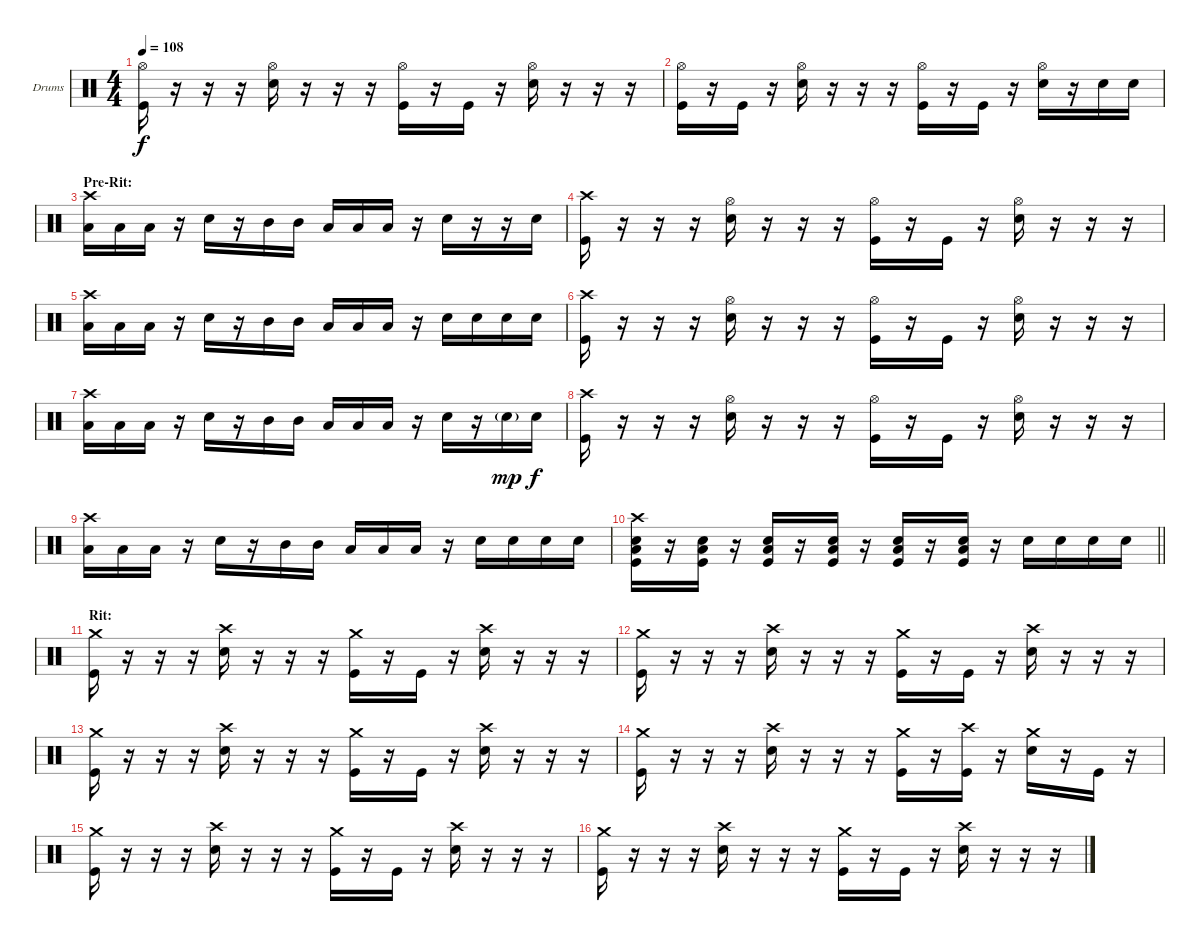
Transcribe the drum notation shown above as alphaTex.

\bracketExtendMode groupsimilarinstruments
\firstSystemTrackNameOrientation horizontal
\otherSystemsTrackNameOrientation horizontal
\track ("Drumkit" "Drums") {instrument percussion}
\staff {score}
\articulation defaults
\ts (4 4)
\tempo 108
\clef neutral
\ks c
("Kick (hit)" "Hi-Hat (open)").16{dy f} r.16 r.16 r.16 ("Snare (hit) 2" "Hi-Hat (open)").16 r.16 r.16 r.16 ("Kick (hit)" "Hi-Hat (open)").16 r.16 "Kick (hit)".16 r.16 ("Snare (hit) 2" "Hi-Hat (open)").16 r.16 r.16 r.16 |
("Kick (hit)" "Hi-Hat (open)").16 r.16 "Kick (hit)".16 r.16 ("Snare (hit) 2" "Hi-Hat (open)").16 r.16 r.16 r.16 ("Kick (hit)" "Hi-Hat (open)").16 r.16 "Kick (hit)".16 r.16 ("Snare (hit) 2" "Hi-Hat (open)").16 r.16 "Snare (hit) 2".16 "Snare (hit) 2".16 |
\section ("" "Pre-Rit:")
("Low Tom (hit)" "Crash high (hit)").16 "Low Tom (hit)".16 "Low Tom (hit)".16 r.16 "Snare (hit) 2".16 r.16 "Mid Tom (hit)".16 "Mid Tom (hit)".16 "Low Tom (hit)".16 "Low Tom (hit)".16 "Low Tom (hit)".16 r.16 "Snare (hit) 2".16 r.16 r.16 "Snare (hit) 2".16 |
("Kick (hit)" "Crash high (hit)").16 r.16 r.16 r.16 ("Snare (hit) 2" "Hi-Hat (open)").16 r.16 r.16 r.16 ("Kick (hit)" "Hi-Hat (open)").16 r.16 "Kick (hit)".16 r.16 ("Snare (hit) 2" "Hi-Hat (open)").16 r.16 r.16 r.16 |
("Low Tom (hit)" "Crash high (hit)").16 "Low Tom (hit)".16 "Low Tom (hit)".16 r.16 "Snare (hit) 2".16 r.16 "Mid Tom (hit)".16 "Mid Tom (hit)".16 "Low Tom (hit)".16 "Low Tom (hit)".16 "Low Tom (hit)".16 r.16 "Snare (hit) 2".16 "Snare (hit) 2".16 "Snare (hit) 2".16 "Snare (hit) 2".16 |
("Kick (hit)" "Crash high (hit)").16 r.16 r.16 r.16 ("Snare (hit) 2" "Hi-Hat (open)").16 r.16 r.16 r.16 ("Kick (hit)" "Hi-Hat (open)").16 r.16 "Kick (hit)".16 r.16 ("Snare (hit) 2" "Hi-Hat (open)").16 r.16 r.16 r.16 |
("Low Tom (hit)" "Crash high (hit)").16 "Low Tom (hit)".16 "Low Tom (hit)".16 r.16 "Snare (hit) 2".16 r.16 "Mid Tom (hit)".16 "Mid Tom (hit)".16 "Low Tom (hit)".16 "Low Tom (hit)".16 "Low Tom (hit)".16 r.16 "Snare (hit) 2".16 r.16 "Snare (hit) 2"{g}.16{dy mp} "Snare (hit) 2".16{dy f} |
("Kick (hit)" "Crash high (hit)").16 r.16 r.16 r.16 ("Snare (hit) 2" "Hi-Hat (open)").16 r.16 r.16 r.16 ("Kick (hit)" "Hi-Hat (open)").16 r.16 "Kick (hit)".16 r.16 ("Snare (hit) 2" "Hi-Hat (open)").16 r.16 r.16 r.16 |
("Low Tom (hit)" "Crash high (hit)").16 "Low Tom (hit)".16 "Low Tom (hit)".16 r.16 "Snare (hit) 2".16 r.16 "Mid Tom (hit)".16 "Mid Tom (hit)".16 "Low Tom (hit)".16 "Low Tom (hit)".16 "Low Tom (hit)".16 r.16 "Snare (hit) 2".16 "Snare (hit) 2".16 "Snare (hit) 2".16 "Snare (hit) 2".16 |
\barLineRight lightlight
("Kick (hit)" "Snare (hit) 2" "Low Tom (hit)" "Crash high (hit)").16 r.16 ("Kick (hit)" "Snare (hit) 2" "Low Tom (hit)").16 r.16 ("Kick (hit)" "Snare (hit) 2" "Low Tom (hit)").16 r.16 ("Kick (hit)" "Snare (hit) 2" "Low Tom (hit)").16 r.16 ("Kick (hit)" "Snare (hit) 2" "Low Tom (hit)").16 r.16 ("Kick (hit)" "Snare (hit) 2" "Low Tom (hit)").16 r.16 "Snare (hit) 2".16 "Snare (hit) 2".16 "Snare (hit) 2".16 "Snare (hit) 2".16 |
\section ("" "Rit:")
("Kick (hit)" "Crash medium (hit)").16 r.16 r.16 r.16 ("Snare (hit) 2" "Crash high (hit)").16 r.16 r.16 r.16 ("Kick (hit)" "Crash medium (hit)").16 r.16 "Kick (hit)".16 r.16 ("Snare (hit) 2" "Crash high (hit)").16 r.16 r.16 r.16 |
("Kick (hit)" "Crash medium (hit)").16 r.16 r.16 r.16 ("Snare (hit) 2" "Crash high (hit)").16 r.16 r.16 r.16 ("Kick (hit)" "Crash medium (hit)").16 r.16 "Kick (hit)".16 r.16 ("Snare (hit) 2" "Crash high (hit)").16 r.16 r.16 r.16 |
("Kick (hit)" "Crash medium (hit)").16 r.16 r.16 r.16 ("Snare (hit) 2" "Crash high (hit)").16 r.16 r.16 r.16 ("Kick (hit)" "Crash medium (hit)").16 r.16 "Kick (hit)".16 r.16 ("Snare (hit) 2" "Crash high (hit)").16 r.16 r.16 r.16 |
("Kick (hit)" "Crash medium (hit)").16 r.16 r.16 r.16 ("Snare (hit) 2" "Crash high (hit)").16 r.16 r.16 r.16 ("Kick (hit)" "Crash medium (hit)").16 r.16 ("Kick (hit)" "Crash high (hit)").16 r.16 ("Snare (hit) 2" "Crash medium (hit)").16 r.16 "Kick (hit)".16 r.16 |
("Kick (hit)" "Crash medium (hit)").16 r.16 r.16 r.16 ("Snare (hit) 2" "Crash high (hit)").16 r.16 r.16 r.16 ("Kick (hit)" "Crash medium (hit)").16 r.16 "Kick (hit)".16 r.16 ("Snare (hit) 2" "Crash high (hit)").16 r.16 r.16 r.16 |
("Kick (hit)" "Crash medium (hit)").16 r.16 r.16 r.16 ("Snare (hit) 2" "Crash high (hit)").16 r.16 r.16 r.16 ("Kick (hit)" "Crash medium (hit)").16 r.16 "Kick (hit)".16 r.16 ("Snare (hit) 2" "Crash high (hit)").16 r.16 r.16 r.16
